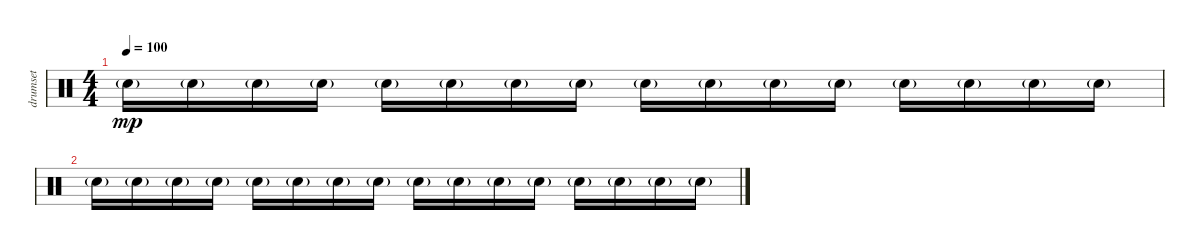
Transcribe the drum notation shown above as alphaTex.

\track ("drumset" "drumset") {instrument percussion}
\staff {score}
\articulation defaults
\ts (4 4)
\tempo 100
\clef neutral
\ks c "Electric Snare (hit)"{g}.16{dy mp} "Electric Snare (hit)"{g}.16 "Electric Snare (hit)"{g}.16 "Electric Snare (hit)"{g}.16 "Electric Snare (hit)"{g}.16 "Electric Snare (hit)"{g}.16 "Electric Snare (hit)"{g}.16 "Electric Snare (hit)"{g}.16 "Electric Snare (hit)"{g}.16 "Electric Snare (hit)"{g}.16 "Electric Snare (hit)"{g}.16 "Electric Snare (hit)"{g}.16 "Electric Snare (hit)"{g}.16 "Electric Snare (hit)"{g}.16 "Electric Snare (hit)"{g}.16 "Electric Snare (hit)"{g}.16
|
"Electric Snare (hit)"{g}.16 "Electric Snare (hit)"{g}.16 "Electric Snare (hit)"{g}.16 "Electric Snare (hit)"{g}.16 "Electric Snare (hit)"{g}.16 "Electric Snare (hit)"{g}.16 "Electric Snare (hit)"{g}.16 "Electric Snare (hit)"{g}.16 "Electric Snare (hit)"{g}.16 "Electric Snare (hit)"{g}.16 "Electric Snare (hit)"{g}.16 "Electric Snare (hit)"{g}.16 "Electric Snare (hit)"{g}.16 "Electric Snare (hit)"{g}.16 "Electric Snare (hit)"{g}.16 "Electric Snare (hit)"{g}.16
